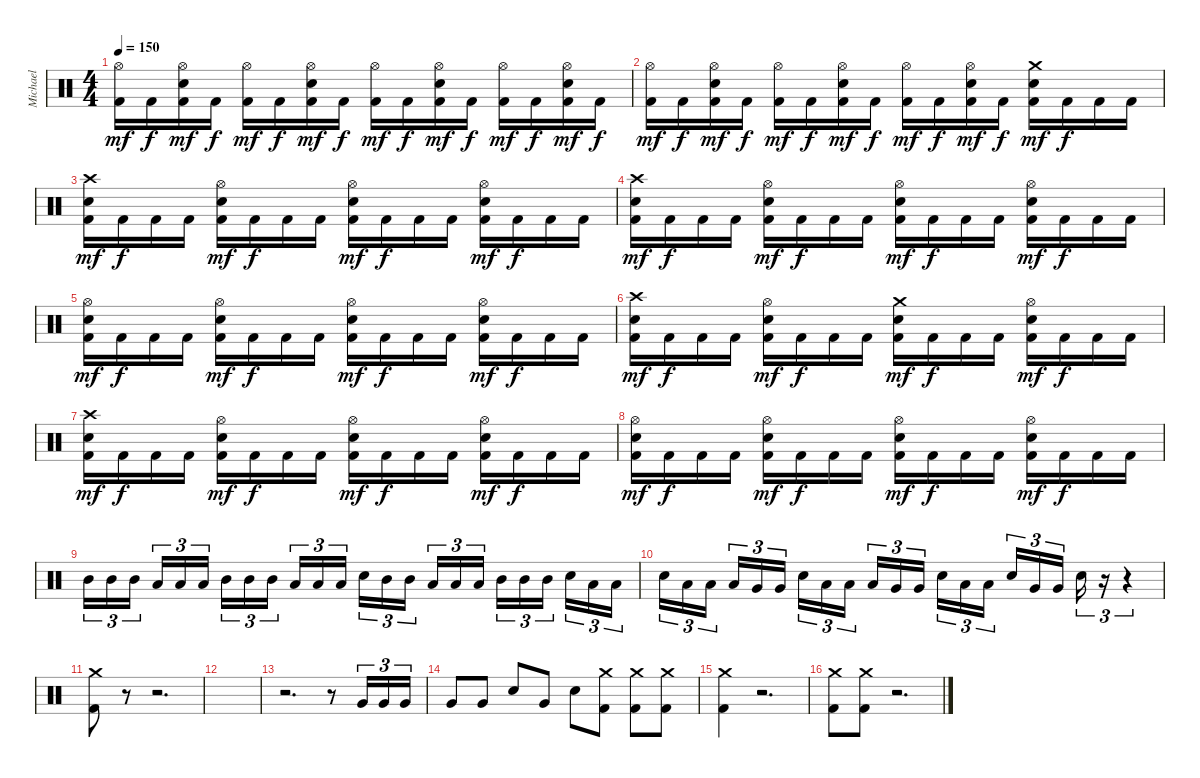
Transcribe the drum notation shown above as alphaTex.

\track ("Michael" "Michael") {instrument percussion}
\staff {score}
\articulation defaults
\ts (4 4)
\tempo 150
\clef neutral
\ks c
("Hi-Hat (open)" "Kick (hit) 2").16{dy mf} "Kick (hit) 2".16{dy f} ("Hi-Hat (open)" "Electric Snare (hit)" "Kick (hit) 2").16{dy mf} "Kick (hit) 2".16{dy f} ("Hi-Hat (open)" "Kick (hit) 2").16{dy mf} "Kick (hit) 2".16{dy f} ("Hi-Hat (open)" "Electric Snare (hit)" "Kick (hit) 2").16{dy mf} "Kick (hit) 2".16{dy f} ("Hi-Hat (open)" "Kick (hit) 2").16{dy mf} "Kick (hit) 2".16{dy f} ("Hi-Hat (open)" "Electric Snare (hit)" "Kick (hit) 2").16{dy mf} "Kick (hit) 2".16{dy f} ("Hi-Hat (open)" "Kick (hit) 2").16{dy mf} "Kick (hit) 2".16{dy f} ("Hi-Hat (open)" "Electric Snare (hit)" "Kick (hit) 2").16{dy mf} "Kick (hit) 2".16{dy f} |
("Hi-Hat (open)" "Kick (hit) 2").16{dy mf} "Kick (hit) 2".16{dy f} ("Hi-Hat (open)" "Electric Snare (hit)" "Kick (hit) 2").16{dy mf} "Kick (hit) 2".16{dy f} ("Hi-Hat (open)" "Kick (hit) 2").16{dy mf} "Kick (hit) 2".16{dy f} ("Hi-Hat (open)" "Electric Snare (hit)" "Kick (hit) 2").16{dy mf} "Kick (hit) 2".16{dy f} ("Hi-Hat (open)" "Kick (hit) 2").16{dy mf} "Kick (hit) 2".16{dy f} ("Hi-Hat (open)" "Electric Snare (hit)" "Kick (hit) 2").16{dy mf} "Kick (hit) 2".16{dy f} ("Crash medium (hit)" "Electric Snare (hit)" "Kick (hit) 2").16{dy mf} "Kick (hit) 2".16{dy f} "Kick (hit) 2".16 "Kick (hit) 2".16 |
("Crash high (hit)" "Electric Snare (hit)" "Kick (hit) 2").16{dy mf} "Kick (hit) 2".16{dy f} "Kick (hit) 2".16 "Kick (hit) 2".16 ("Hi-Hat (open)" "Electric Snare (hit)" "Kick (hit) 2").16{dy mf} "Kick (hit) 2".16{dy f} "Kick (hit) 2".16 "Kick (hit) 2".16 ("Hi-Hat (open)" "Electric Snare (hit)" "Kick (hit) 2").16{dy mf} "Kick (hit) 2".16{dy f} "Kick (hit) 2".16 "Kick (hit) 2".16 ("Hi-Hat (open)" "Electric Snare (hit)" "Kick (hit) 2").16{dy mf} "Kick (hit) 2".16{dy f} "Kick (hit) 2".16 "Kick (hit) 2".16 |
("Crash high (hit)" "Electric Snare (hit)" "Kick (hit) 2").16{dy mf} "Kick (hit) 2".16{dy f} "Kick (hit) 2".16 "Kick (hit) 2".16 ("Hi-Hat (open)" "Electric Snare (hit)" "Kick (hit) 2").16{dy mf} "Kick (hit) 2".16{dy f} "Kick (hit) 2".16 "Kick (hit) 2".16 ("Hi-Hat (open)" "Electric Snare (hit)" "Kick (hit) 2").16{dy mf} "Kick (hit) 2".16{dy f} "Kick (hit) 2".16 "Kick (hit) 2".16 ("Hi-Hat (open)" "Electric Snare (hit)" "Kick (hit) 2").16{dy mf} "Kick (hit) 2".16{dy f} "Kick (hit) 2".16 "Kick (hit) 2".16 |
("Hi-Hat (open)" "Electric Snare (hit)" "Kick (hit) 2").16{dy mf} "Kick (hit) 2".16{dy f} "Kick (hit) 2".16 "Kick (hit) 2".16 ("Hi-Hat (open)" "Electric Snare (hit)" "Kick (hit) 2").16{dy mf} "Kick (hit) 2".16{dy f} "Kick (hit) 2".16 "Kick (hit) 2".16 ("Hi-Hat (open)" "Electric Snare (hit)" "Kick (hit) 2").16{dy mf} "Kick (hit) 2".16{dy f} "Kick (hit) 2".16 "Kick (hit) 2".16 ("Hi-Hat (open)" "Electric Snare (hit)" "Kick (hit) 2").16{dy mf} "Kick (hit) 2".16{dy f} "Kick (hit) 2".16 "Kick (hit) 2".16 |
("Crash high (hit)" "Electric Snare (hit)" "Kick (hit) 2").16{dy mf} "Kick (hit) 2".16{dy f} "Kick (hit) 2".16 "Kick (hit) 2".16 ("Hi-Hat (open)" "Electric Snare (hit)" "Kick (hit) 2").16{dy mf} "Kick (hit) 2".16{dy f} "Kick (hit) 2".16 "Kick (hit) 2".16 ("Crash medium (hit)" "Electric Snare (hit)" "Kick (hit) 2").16{dy mf} "Kick (hit) 2".16{dy f} "Kick (hit) 2".16 "Kick (hit) 2".16 ("Hi-Hat (open)" "Electric Snare (hit)" "Kick (hit) 2").16{dy mf} "Kick (hit) 2".16{dy f} "Kick (hit) 2".16 "Kick (hit) 2".16 |
("Crash high (hit)" "Electric Snare (hit)" "Kick (hit) 2").16{dy mf} "Kick (hit) 2".16{dy f} "Kick (hit) 2".16 "Kick (hit) 2".16 ("Hi-Hat (open)" "Electric Snare (hit)" "Kick (hit) 2").16{dy mf} "Kick (hit) 2".16{dy f} "Kick (hit) 2".16 "Kick (hit) 2".16 ("Hi-Hat (open)" "Electric Snare (hit)" "Kick (hit) 2").16{dy mf} "Kick (hit) 2".16{dy f} "Kick (hit) 2".16 "Kick (hit) 2".16 ("Hi-Hat (open)" "Electric Snare (hit)" "Kick (hit) 2").16{dy mf} "Kick (hit) 2".16{dy f} "Kick (hit) 2".16 "Kick (hit) 2".16 |
("Hi-Hat (open)" "Electric Snare (hit)" "Kick (hit) 2").16{dy mf} "Kick (hit) 2".16{dy f} "Kick (hit) 2".16 "Kick (hit) 2".16 ("Hi-Hat (open)" "Electric Snare (hit)" "Kick (hit) 2").16{dy mf} "Kick (hit) 2".16{dy f} "Kick (hit) 2".16 "Kick (hit) 2".16 ("Hi-Hat (open)" "Electric Snare (hit)" "Kick (hit) 2").16{dy mf} "Kick (hit) 2".16{dy f} "Kick (hit) 2".16 "Kick (hit) 2".16 ("Hi-Hat (open)" "Electric Snare (hit)" "Kick (hit) 2").16{dy mf} "Kick (hit) 2".16{dy f} "Kick (hit) 2".16 "Kick (hit) 2".16 |
"Mid Tom (hit)".16{tu (3 2)} "Mid Tom (hit)".16{tu (3 2)} "Mid Tom (hit)".16{tu (3 2)} "Low Tom (hit)".16{tu (3 2)} "Low Tom (hit)".16{tu (3 2)} "Low Tom (hit)".16{tu (3 2)} "Mid Tom (hit)".16{tu (3 2)} "Mid Tom (hit)".16{tu (3 2)} "Mid Tom (hit)".16{tu (3 2)} "Low Tom (hit)".16{tu (3 2)} "Low Tom (hit)".16{tu (3 2)} "Low Tom (hit)".16{tu (3 2)} "Electric Snare (hit)".16{tu (3 2)} "Mid Tom (hit)".16{tu (3 2)} "Mid Tom (hit)".16{tu (3 2)} "Low Tom (hit)".16{tu (3 2)} "Low Tom (hit)".16{tu (3 2)} "Low Tom (hit)".16{tu (3 2)} "Mid Tom (hit)".16{tu (3 2)} "Mid Tom (hit)".16{tu (3 2)} "Mid Tom (hit)".16{tu (3 2)} "Electric Snare (hit)".16{tu (3 2)} "Low Tom (hit)".16{tu (3 2)} "Low Tom (hit)".16{tu (3 2)} |
"Electric Snare (hit)".16{tu (3 2)} "Low Tom (hit)".16{tu (3 2)} "Low Tom (hit)".16{tu (3 2)} "Low Tom (hit)".16{tu (3 2)} "Very Low Tom (hit)".16{tu (3 2)} "Very Low Tom (hit)".16{tu (3 2)} "Electric Snare (hit)".16{tu (3 2)} "Low Tom (hit)".16{tu (3 2)} "Low Tom (hit)".16{tu (3 2)} "Low Tom (hit)".16{tu (3 2)} "Very Low Tom (hit)".16{tu (3 2)} "Very Low Tom (hit)".16{tu (3 2)} "Electric Snare (hit)".16{tu (3 2)} "Low Tom (hit)".16{tu (3 2)} "Low Tom (hit)".16{tu (3 2)} "Electric Snare (hit)".16{tu (3 2)} "Very Low Tom (hit)".16{tu (3 2)} "Very Low Tom (hit)".16{tu (3 2)} "Electric Snare (hit)".16{tu (3 2)} r.16{tu (3 2)} r.4{tu (3 2)} |
("Crash medium (hit)" "Kick (hit) 2").8 r.8 r.2{d} |
|
r.2{d} r.8 "Very Low Tom (hit)".16{tu (3 2)} "Very Low Tom (hit)".16{tu (3 2)} "Very Low Tom (hit)".16{tu (3 2)} |
"Very Low Tom (hit)".8 "Very Low Tom (hit)".8 "Electric Snare (hit)".8 "Very Low Tom (hit)".8 "Electric Snare (hit)".8 ("Crash medium (hit)" "Kick (hit) 2").8 ("Crash medium (hit)" "Kick (hit) 2").8 ("Crash medium (hit)" "Kick (hit) 2").8 |
("Crash medium (hit)" "Kick (hit) 2").4 r.2{d} |
("Crash medium (hit)" "Kick (hit) 2").8 ("Crash medium (hit)" "Kick (hit) 2").8 r.2{d}
